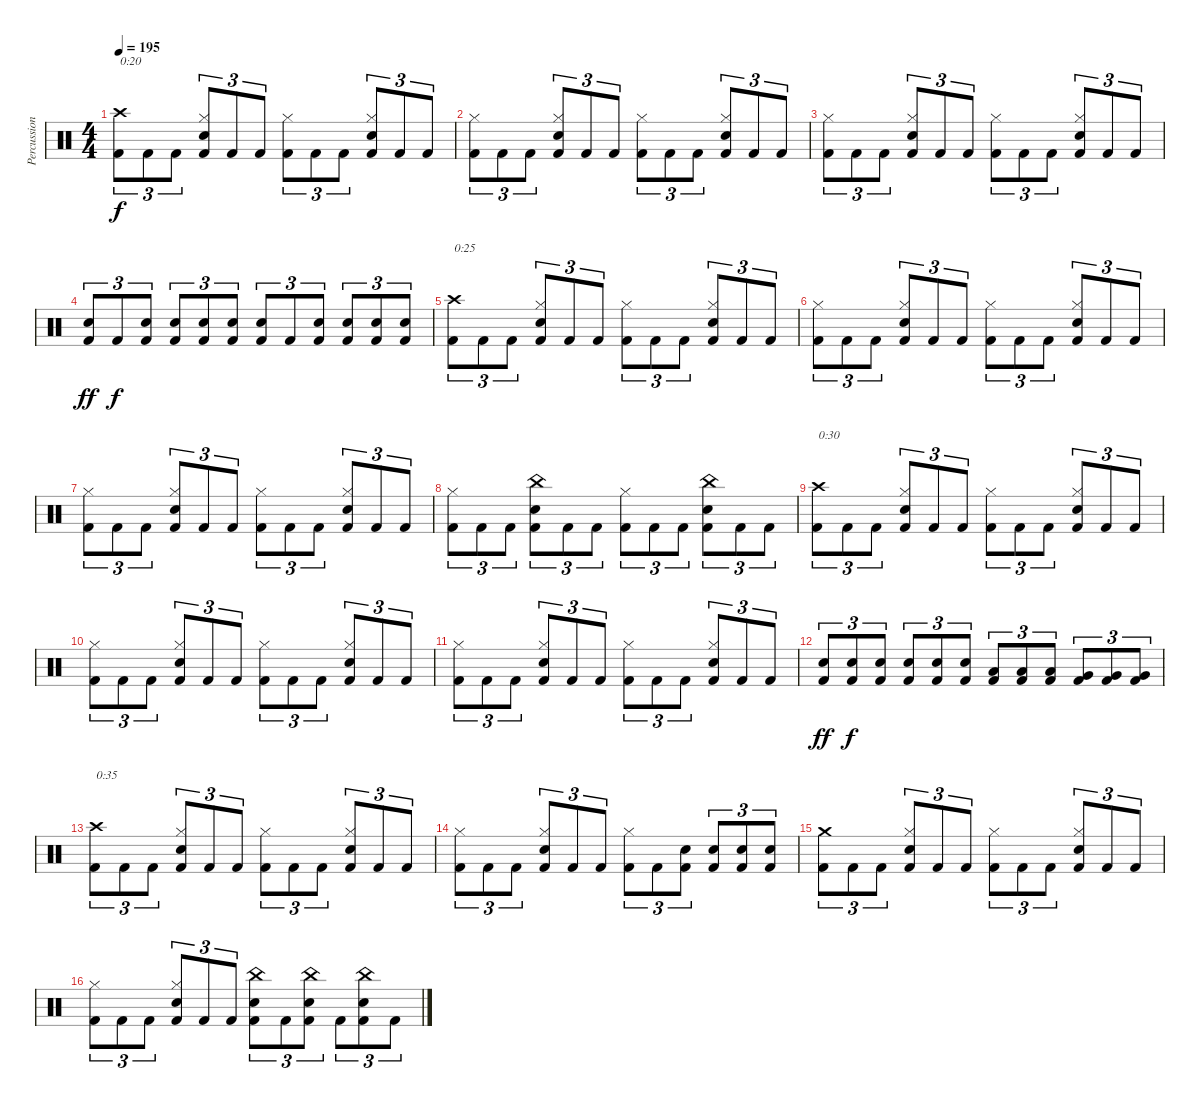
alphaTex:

\track ("Percussion" "Percussion") {instrument percussion}
\staff {score}
\articulation defaults
\ts (4 4)
\tempo 195
\clef neutral
\ks c
("Crash high (hit)" "Kick (hit) 2").8{tu (3 2) txt "0:20" dy f} "Kick (hit) 2".8{tu (3 2)} "Kick (hit) 2".8{tu (3 2)} ("Hi-Hat (closed)" "Snare (hit) 2" "Kick (hit) 2").8{tu (3 2)} "Kick (hit) 2".8{tu (3 2)} "Kick (hit) 2".8{tu (3 2)} ("Hi-Hat (closed)" "Kick (hit) 2").8{tu (3 2)} "Kick (hit) 2".8{tu (3 2)} "Kick (hit) 2".8{tu (3 2)} ("Hi-Hat (closed)" "Snare (hit) 2" "Kick (hit) 2").8{tu (3 2)} "Kick (hit) 2".8{tu (3 2)} "Kick (hit) 2".8{tu (3 2)} |
("Hi-Hat (closed)" "Kick (hit) 2").8{tu (3 2)} "Kick (hit) 2".8{tu (3 2)} "Kick (hit) 2".8{tu (3 2)} ("Hi-Hat (closed)" "Snare (hit) 2" "Kick (hit) 2").8{tu (3 2)} "Kick (hit) 2".8{tu (3 2)} "Kick (hit) 2".8{tu (3 2)} ("Hi-Hat (closed)" "Kick (hit) 2").8{tu (3 2)} "Kick (hit) 2".8{tu (3 2)} "Kick (hit) 2".8{tu (3 2)} ("Hi-Hat (closed)" "Snare (hit) 2" "Kick (hit) 2").8{tu (3 2)} "Kick (hit) 2".8{tu (3 2)} "Kick (hit) 2".8{tu (3 2)} |
("Hi-Hat (closed)" "Kick (hit) 2").8{tu (3 2)} "Kick (hit) 2".8{tu (3 2)} "Kick (hit) 2".8{tu (3 2)} ("Hi-Hat (closed)" "Snare (hit) 2" "Kick (hit) 2").8{tu (3 2)} "Kick (hit) 2".8{tu (3 2)} "Kick (hit) 2".8{tu (3 2)} ("Hi-Hat (closed)" "Kick (hit) 2").8{tu (3 2)} "Kick (hit) 2".8{tu (3 2)} "Kick (hit) 2".8{tu (3 2)} ("Hi-Hat (closed)" "Snare (hit) 2" "Kick (hit) 2").8{tu (3 2)} "Kick (hit) 2".8{tu (3 2)} "Kick (hit) 2".8{tu (3 2)} |
("Snare (hit) 2" "Kick (hit) 2").8{tu (3 2) dy ff} "Kick (hit) 2".8{tu (3 2) dy f} ("Snare (hit) 2" "Kick (hit) 2").8{tu (3 2)} ("Snare (hit) 2" "Kick (hit) 2").8{tu (3 2)} ("Snare (hit) 2" "Kick (hit) 2").8{tu (3 2)} ("Snare (hit) 2" "Kick (hit) 2").8{tu (3 2)} ("Snare (hit) 2" "Kick (hit) 2").8{tu (3 2)} "Kick (hit) 2".8{tu (3 2)} ("Snare (hit) 2" "Kick (hit) 2").8{tu (3 2)} ("Snare (hit) 2" "Kick (hit) 2").8{tu (3 2)} ("Snare (hit) 2" "Kick (hit) 2").8{tu (3 2)} ("Snare (hit) 2" "Kick (hit) 2").8{tu (3 2)} |
("Crash high (hit)" "Kick (hit) 2").8{tu (3 2) txt "0:25"} "Kick (hit) 2".8{tu (3 2)} "Kick (hit) 2".8{tu (3 2)} ("Hi-Hat (closed)" "Snare (hit) 2" "Kick (hit) 2").8{tu (3 2)} "Kick (hit) 2".8{tu (3 2)} "Kick (hit) 2".8{tu (3 2)} ("Hi-Hat (closed)" "Kick (hit) 2").8{tu (3 2)} "Kick (hit) 2".8{tu (3 2)} "Kick (hit) 2".8{tu (3 2)} ("Hi-Hat (closed)" "Snare (hit) 2" "Kick (hit) 2").8{tu (3 2)} "Kick (hit) 2".8{tu (3 2)} "Kick (hit) 2".8{tu (3 2)} |
("Hi-Hat (closed)" "Kick (hit) 2").8{tu (3 2)} "Kick (hit) 2".8{tu (3 2)} "Kick (hit) 2".8{tu (3 2)} ("Hi-Hat (closed)" "Snare (hit) 2" "Kick (hit) 2").8{tu (3 2)} "Kick (hit) 2".8{tu (3 2)} "Kick (hit) 2".8{tu (3 2)} ("Hi-Hat (closed)" "Kick (hit) 2").8{tu (3 2)} "Kick (hit) 2".8{tu (3 2)} "Kick (hit) 2".8{tu (3 2)} ("Hi-Hat (closed)" "Snare (hit) 2" "Kick (hit) 2").8{tu (3 2)} "Kick (hit) 2".8{tu (3 2)} "Kick (hit) 2".8{tu (3 2)} |
("Hi-Hat (closed)" "Kick (hit) 2").8{tu (3 2)} "Kick (hit) 2".8{tu (3 2)} "Kick (hit) 2".8{tu (3 2)} ("Hi-Hat (closed)" "Snare (hit) 2" "Kick (hit) 2").8{tu (3 2)} "Kick (hit) 2".8{tu (3 2)} "Kick (hit) 2".8{tu (3 2)} ("Hi-Hat (closed)" "Kick (hit) 2").8{tu (3 2)} "Kick (hit) 2".8{tu (3 2)} "Kick (hit) 2".8{tu (3 2)} ("Hi-Hat (closed)" "Snare (hit) 2" "Kick (hit) 2").8{tu (3 2)} "Kick (hit) 2".8{tu (3 2)} "Kick (hit) 2".8{tu (3 2)} |
("Hi-Hat (closed)" "Kick (hit) 2").8{tu (3 2)} "Kick (hit) 2".8{tu (3 2)} "Kick (hit) 2".8{tu (3 2)} ("China (hit)" "Snare (hit) 2" "Kick (hit) 2").8{tu (3 2)} "Kick (hit) 2".8{tu (3 2)} "Kick (hit) 2".8{tu (3 2)} ("Hi-Hat (closed)" "Kick (hit) 2").8{tu (3 2)} "Kick (hit) 2".8{tu (3 2)} "Kick (hit) 2".8{tu (3 2)} ("China (hit)" "Snare (hit) 2" "Kick (hit) 2").8{tu (3 2)} "Kick (hit) 2".8{tu (3 2)} "Kick (hit) 2".8{tu (3 2)} |
("Crash high (hit)" "Kick (hit) 2").8{tu (3 2) txt "0:30"} "Kick (hit) 2".8{tu (3 2)} "Kick (hit) 2".8{tu (3 2)} ("Hi-Hat (closed)" "Snare (hit) 2" "Kick (hit) 2").8{tu (3 2)} "Kick (hit) 2".8{tu (3 2)} "Kick (hit) 2".8{tu (3 2)} ("Hi-Hat (closed)" "Kick (hit) 2").8{tu (3 2)} "Kick (hit) 2".8{tu (3 2)} "Kick (hit) 2".8{tu (3 2)} ("Hi-Hat (closed)" "Snare (hit) 2" "Kick (hit) 2").8{tu (3 2)} "Kick (hit) 2".8{tu (3 2)} "Kick (hit) 2".8{tu (3 2)} |
("Hi-Hat (closed)" "Kick (hit) 2").8{tu (3 2)} "Kick (hit) 2".8{tu (3 2)} "Kick (hit) 2".8{tu (3 2)} ("Hi-Hat (closed)" "Snare (hit) 2" "Kick (hit) 2").8{tu (3 2)} "Kick (hit) 2".8{tu (3 2)} "Kick (hit) 2".8{tu (3 2)} ("Hi-Hat (closed)" "Kick (hit) 2").8{tu (3 2)} "Kick (hit) 2".8{tu (3 2)} "Kick (hit) 2".8{tu (3 2)} ("Hi-Hat (closed)" "Snare (hit) 2" "Kick (hit) 2").8{tu (3 2)} "Kick (hit) 2".8{tu (3 2)} "Kick (hit) 2".8{tu (3 2)} |
("Hi-Hat (closed)" "Kick (hit) 2").8{tu (3 2)} "Kick (hit) 2".8{tu (3 2)} "Kick (hit) 2".8{tu (3 2)} ("Hi-Hat (closed)" "Snare (hit) 2" "Kick (hit) 2").8{tu (3 2)} "Kick (hit) 2".8{tu (3 2)} "Kick (hit) 2".8{tu (3 2)} ("Hi-Hat (closed)" "Kick (hit) 2").8{tu (3 2)} "Kick (hit) 2".8{tu (3 2)} "Kick (hit) 2".8{tu (3 2)} ("Hi-Hat (closed)" "Snare (hit) 2" "Kick (hit) 2").8{tu (3 2)} "Kick (hit) 2".8{tu (3 2)} "Kick (hit) 2".8{tu (3 2)} |
("Snare (hit) 2" "Kick (hit) 2").8{tu (3 2) dy ff} ("Snare (hit) 2" "Kick (hit) 2").8{tu (3 2) dy f} ("Snare (hit) 2" "Kick (hit) 2").8{tu (3 2)} ("Snare (hit) 2" "Kick (hit) 2").8{tu (3 2)} ("Snare (hit) 2" "Kick (hit) 2").8{tu (3 2)} ("Snare (hit) 2" "Kick (hit) 2").8{tu (3 2)} ("Low Tom (hit)" "Kick (hit) 2").8{tu (3 2)} ("Low Tom (hit)" "Kick (hit) 2").8{tu (3 2)} ("Low Tom (hit)" "Kick (hit) 2").8{tu (3 2)} ("Very Low Tom (hit)" "Kick (hit) 2").8{tu (3 2)} ("Very Low Tom (hit)" "Kick (hit) 2").8{tu (3 2)} ("Very Low Tom (hit)" "Kick (hit) 2").8{tu (3 2)} |
("Crash high (hit)" "Kick (hit) 2").8{tu (3 2) txt "0:35"} "Kick (hit) 2".8{tu (3 2)} "Kick (hit) 2".8{tu (3 2)} ("Hi-Hat (closed)" "Snare (hit) 2" "Kick (hit) 2").8{tu (3 2)} "Kick (hit) 2".8{tu (3 2)} "Kick (hit) 2".8{tu (3 2)} ("Hi-Hat (closed)" "Kick (hit) 2").8{tu (3 2)} "Kick (hit) 2".8{tu (3 2)} "Kick (hit) 2".8{tu (3 2)} ("Hi-Hat (closed)" "Snare (hit) 2" "Kick (hit) 2").8{tu (3 2)} "Kick (hit) 2".8{tu (3 2)} "Kick (hit) 2".8{tu (3 2)} |
("Hi-Hat (closed)" "Kick (hit) 2").8{tu (3 2)} "Kick (hit) 2".8{tu (3 2)} "Kick (hit) 2".8{tu (3 2)} ("Hi-Hat (closed)" "Snare (hit) 2" "Kick (hit) 2").8{tu (3 2)} "Kick (hit) 2".8{tu (3 2)} "Kick (hit) 2".8{tu (3 2)} ("Hi-Hat (closed)" "Kick (hit) 2").8{tu (3 2)} "Kick (hit) 2".8{tu (3 2)} ("Snare (hit) 2" "Kick (hit) 2").8{tu (3 2)} ("Snare (hit) 2" "Kick (hit) 2").8{tu (3 2)} ("Snare (hit) 2" "Kick (hit) 2").8{tu (3 2)} ("Snare (hit) 2" "Kick (hit) 2").8{tu (3 2)} |
("Crash medium (hit)" "Kick (hit) 2").8{tu (3 2)} "Kick (hit) 2".8{tu (3 2)} "Kick (hit) 2".8{tu (3 2)} ("Hi-Hat (closed)" "Snare (hit) 2" "Kick (hit) 2").8{tu (3 2)} "Kick (hit) 2".8{tu (3 2)} "Kick (hit) 2".8{tu (3 2)} ("Hi-Hat (closed)" "Kick (hit) 2").8{tu (3 2)} "Kick (hit) 2".8{tu (3 2)} "Kick (hit) 2".8{tu (3 2)} ("Hi-Hat (closed)" "Snare (hit) 2" "Kick (hit) 2").8{tu (3 2)} "Kick (hit) 2".8{tu (3 2)} "Kick (hit) 2".8{tu (3 2)} |
("Hi-Hat (closed)" "Kick (hit) 2").8{tu (3 2)} "Kick (hit) 2".8{tu (3 2)} "Kick (hit) 2".8{tu (3 2)} ("Hi-Hat (closed)" "Snare (hit) 2" "Kick (hit) 2").8{tu (3 2)} "Kick (hit) 2".8{tu (3 2)} "Kick (hit) 2".8{tu (3 2)} ("China (hit)" "Snare (hit) 2" "Kick (hit) 2").8{tu (3 2)} "Kick (hit) 2".8{tu (3 2)} ("China (hit)" "Snare (hit) 2" "Kick (hit) 2").8{tu (3 2)} "Kick (hit) 2".8{tu (3 2)} ("China (hit)" "Snare (hit) 2" "Kick (hit) 2").8{tu (3 2)} "Kick (hit) 2".8{tu (3 2)}
